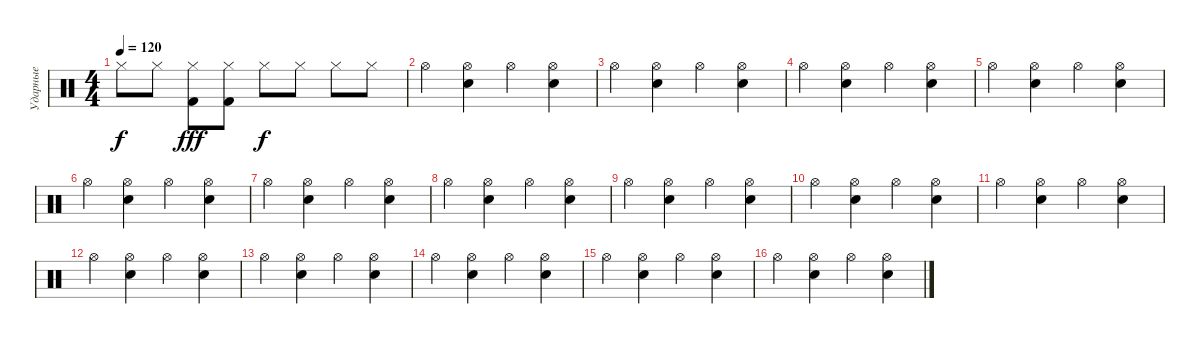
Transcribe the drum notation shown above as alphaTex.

\track ("Ударные" "Ударные") {instrument percussion}
\staff {score}
\articulation defaults
\ts (4 4)
\tempo 120
\clef neutral
\ks c "Hi-Hat (closed)".8{dy f} "Hi-Hat (closed)".8
("Hi-Hat (closed)" "Kick (hit) 2").8{dy fff} ("Hi-Hat (closed)" "Kick (hit) 2").8 "Hi-Hat (closed)".8{dy f} "Hi-Hat (closed)".8 "Hi-Hat (closed)".8 "Hi-Hat (closed)".8 |
"Hi-Hat (open)".4 ("Hi-Hat (open)" "Snare (hit) 2").4 "Hi-Hat (open)".4 ("Hi-Hat (open)" "Snare (hit) 2").4 |
"Hi-Hat (open)".4 ("Hi-Hat (open)" "Snare (hit) 2").4 "Hi-Hat (open)".4 ("Hi-Hat (open)" "Snare (hit) 2").4 |
"Hi-Hat (open)".4 ("Hi-Hat (open)" "Snare (hit) 2").4 "Hi-Hat (open)".4 ("Hi-Hat (open)" "Snare (hit) 2").4 |
"Hi-Hat (open)".4 ("Hi-Hat (open)" "Snare (hit) 2").4 "Hi-Hat (open)".4 ("Hi-Hat (open)" "Snare (hit) 2").4 |
"Hi-Hat (open)".4 ("Hi-Hat (open)" "Snare (hit) 2").4 "Hi-Hat (open)".4 ("Hi-Hat (open)" "Snare (hit) 2").4 |
"Hi-Hat (open)".4 ("Hi-Hat (open)" "Snare (hit) 2").4 "Hi-Hat (open)".4 ("Hi-Hat (open)" "Snare (hit) 2").4 |
"Hi-Hat (open)".4 ("Hi-Hat (open)" "Snare (hit) 2").4 "Hi-Hat (open)".4 ("Hi-Hat (open)" "Snare (hit) 2").4 |
"Hi-Hat (open)".4 ("Hi-Hat (open)" "Snare (hit) 2").4 "Hi-Hat (open)".4 ("Hi-Hat (open)" "Snare (hit) 2").4 |
"Hi-Hat (open)".4 ("Hi-Hat (open)" "Snare (hit) 2").4 "Hi-Hat (open)".4 ("Hi-Hat (open)" "Snare (hit) 2").4 |
"Hi-Hat (open)".4 ("Hi-Hat (open)" "Snare (hit) 2").4 "Hi-Hat (open)".4 ("Hi-Hat (open)" "Snare (hit) 2").4 |
"Hi-Hat (open)".4 ("Hi-Hat (open)" "Snare (hit) 2").4 "Hi-Hat (open)".4 ("Hi-Hat (open)" "Snare (hit) 2").4 |
"Hi-Hat (open)".4 ("Hi-Hat (open)" "Snare (hit) 2").4 "Hi-Hat (open)".4 ("Hi-Hat (open)" "Snare (hit) 2").4 |
"Hi-Hat (open)".4 ("Hi-Hat (open)" "Snare (hit) 2").4 "Hi-Hat (open)".4 ("Hi-Hat (open)" "Snare (hit) 2").4 |
"Hi-Hat (open)".4 ("Hi-Hat (open)" "Snare (hit) 2").4 "Hi-Hat (open)".4 ("Hi-Hat (open)" "Snare (hit) 2").4 |
"Hi-Hat (open)".4 ("Hi-Hat (open)" "Snare (hit) 2").4 "Hi-Hat (open)".4 ("Hi-Hat (open)" "Snare (hit) 2").4
